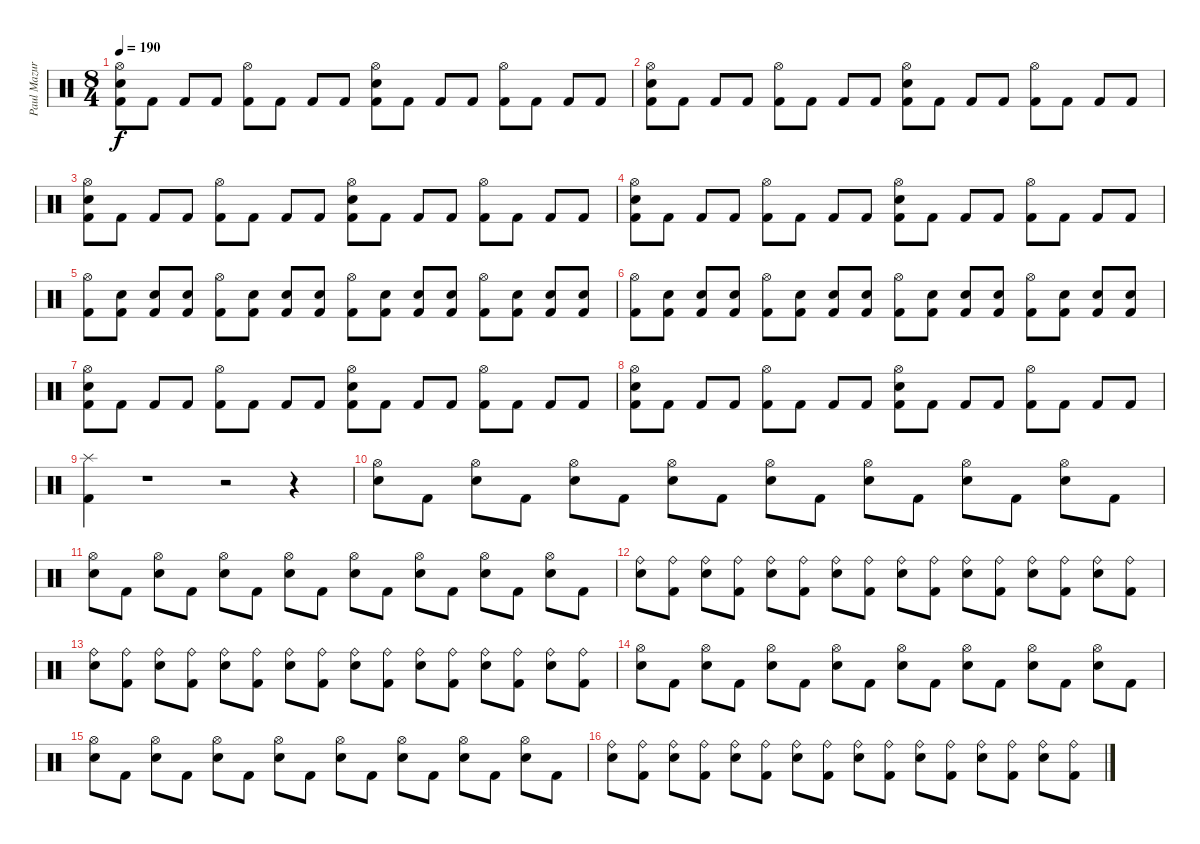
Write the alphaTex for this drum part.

\track ("Paul Mazurkiewicz" "Paul Mazur") {instrument percussion}
\staff {score}
\articulation defaults
\ts (8 4)
\tempo 190
\clef neutral
\ks c
("Hi-Hat (open)" "Snare (hit) 2" "Kick (hit) 2").8{dy f} "Kick (hit) 2".8 "Kick (hit) 2".8 "Kick (hit) 2".8 ("Hi-Hat (open)" "Kick (hit) 2").8 "Kick (hit) 2".8 "Kick (hit) 2".8 "Kick (hit) 2".8 ("Hi-Hat (open)" "Snare (hit) 2" "Kick (hit) 2").8 "Kick (hit) 2".8 "Kick (hit) 2".8 "Kick (hit) 2".8 ("Hi-Hat (open)" "Kick (hit) 2").8 "Kick (hit) 2".8 "Kick (hit) 2".8 "Kick (hit) 2".8 |
("Hi-Hat (open)" "Snare (hit) 2" "Kick (hit) 2").8 "Kick (hit) 2".8 "Kick (hit) 2".8 "Kick (hit) 2".8 ("Hi-Hat (open)" "Kick (hit) 2").8 "Kick (hit) 2".8 "Kick (hit) 2".8 "Kick (hit) 2".8 ("Hi-Hat (open)" "Snare (hit) 2" "Kick (hit) 2").8 "Kick (hit) 2".8 "Kick (hit) 2".8 "Kick (hit) 2".8 ("Hi-Hat (open)" "Kick (hit) 2").8 "Kick (hit) 2".8 "Kick (hit) 2".8 "Kick (hit) 2".8 |
("Hi-Hat (open)" "Snare (hit) 2" "Kick (hit) 2").8 "Kick (hit) 2".8 "Kick (hit) 2".8 "Kick (hit) 2".8 ("Hi-Hat (open)" "Kick (hit) 2").8 "Kick (hit) 2".8 "Kick (hit) 2".8 "Kick (hit) 2".8 ("Hi-Hat (open)" "Snare (hit) 2" "Kick (hit) 2").8 "Kick (hit) 2".8 "Kick (hit) 2".8 "Kick (hit) 2".8 ("Hi-Hat (open)" "Kick (hit) 2").8 "Kick (hit) 2".8 "Kick (hit) 2".8 "Kick (hit) 2".8 |
("Hi-Hat (open)" "Snare (hit) 2" "Kick (hit) 2").8 "Kick (hit) 2".8 "Kick (hit) 2".8 "Kick (hit) 2".8 ("Hi-Hat (open)" "Kick (hit) 2").8 "Kick (hit) 2".8 "Kick (hit) 2".8 "Kick (hit) 2".8 ("Hi-Hat (open)" "Snare (hit) 2" "Kick (hit) 2").8 "Kick (hit) 2".8 "Kick (hit) 2".8 "Kick (hit) 2".8 ("Hi-Hat (open)" "Kick (hit) 2").8 "Kick (hit) 2".8 "Kick (hit) 2".8 "Kick (hit) 2".8 |
("Hi-Hat (open)" "Kick (hit) 2").8 ("Snare (hit) 2" "Kick (hit) 2").8 ("Snare (hit) 2" "Kick (hit) 2").8 ("Snare (hit) 2" "Kick (hit) 2").8 ("Hi-Hat (open)" "Kick (hit) 2").8 ("Snare (hit) 2" "Kick (hit) 2").8 ("Snare (hit) 2" "Kick (hit) 2").8 ("Snare (hit) 2" "Kick (hit) 2").8 ("Hi-Hat (open)" "Kick (hit) 2").8 ("Snare (hit) 2" "Kick (hit) 2").8 ("Snare (hit) 2" "Kick (hit) 2").8 ("Snare (hit) 2" "Kick (hit) 2").8 ("Hi-Hat (open)" "Kick (hit) 2").8 ("Snare (hit) 2" "Kick (hit) 2").8 ("Snare (hit) 2" "Kick (hit) 2").8 ("Snare (hit) 2" "Kick (hit) 2").8 |
("Hi-Hat (open)" "Kick (hit) 2").8 ("Snare (hit) 2" "Kick (hit) 2").8 ("Snare (hit) 2" "Kick (hit) 2").8 ("Snare (hit) 2" "Kick (hit) 2").8 ("Hi-Hat (open)" "Kick (hit) 2").8 ("Snare (hit) 2" "Kick (hit) 2").8 ("Snare (hit) 2" "Kick (hit) 2").8 ("Snare (hit) 2" "Kick (hit) 2").8 ("Hi-Hat (open)" "Kick (hit) 2").8 ("Snare (hit) 2" "Kick (hit) 2").8 ("Snare (hit) 2" "Kick (hit) 2").8 ("Snare (hit) 2" "Kick (hit) 2").8 ("Hi-Hat (open)" "Kick (hit) 2").8 ("Snare (hit) 2" "Kick (hit) 2").8 ("Snare (hit) 2" "Kick (hit) 2").8 ("Snare (hit) 2" "Kick (hit) 2").8 |
("Hi-Hat (open)" "Snare (hit) 2" "Kick (hit) 2").8 "Kick (hit) 2".8 "Kick (hit) 2".8 "Kick (hit) 2".8 ("Hi-Hat (open)" "Kick (hit) 2").8 "Kick (hit) 2".8 "Kick (hit) 2".8 "Kick (hit) 2".8 ("Hi-Hat (open)" "Snare (hit) 2" "Kick (hit) 2").8 "Kick (hit) 2".8 "Kick (hit) 2".8 "Kick (hit) 2".8 ("Hi-Hat (open)" "Kick (hit) 2").8 "Kick (hit) 2".8 "Kick (hit) 2".8 "Kick (hit) 2".8 |
("Hi-Hat (open)" "Snare (hit) 2" "Kick (hit) 2").8 "Kick (hit) 2".8 "Kick (hit) 2".8 "Kick (hit) 2".8 ("Hi-Hat (open)" "Kick (hit) 2").8 "Kick (hit) 2".8 "Kick (hit) 2".8 "Kick (hit) 2".8 ("Hi-Hat (open)" "Snare (hit) 2" "Kick (hit) 2").8 "Kick (hit) 2".8 "Kick (hit) 2".8 "Kick (hit) 2".8 ("Hi-Hat (open)" "Kick (hit) 2").8 "Kick (hit) 2".8 "Kick (hit) 2".8 "Kick (hit) 2".8 |
("Splash (hit)" "Kick (hit) 2").4 r.1 r.2 r.4 |
("Hi-Hat (open)" "Snare (hit) 2").8 "Kick (hit) 2".8 ("Hi-Hat (open)" "Snare (hit) 2").8 "Kick (hit) 2".8 ("Hi-Hat (open)" "Snare (hit) 2").8 "Kick (hit) 2".8 ("Hi-Hat (open)" "Snare (hit) 2").8 "Kick (hit) 2".8 ("Hi-Hat (open)" "Snare (hit) 2").8 "Kick (hit) 2".8 ("Hi-Hat (open)" "Snare (hit) 2").8 "Kick (hit) 2".8 ("Hi-Hat (open)" "Snare (hit) 2").8 "Kick (hit) 2".8 ("Hi-Hat (open)" "Snare (hit) 2").8 "Kick (hit) 2".8 |
("Hi-Hat (open)" "Snare (hit) 2").8 "Kick (hit) 2".8 ("Hi-Hat (open)" "Snare (hit) 2").8 "Kick (hit) 2".8 ("Hi-Hat (open)" "Snare (hit) 2").8 "Kick (hit) 2".8 ("Hi-Hat (open)" "Snare (hit) 2").8 "Kick (hit) 2".8 ("Hi-Hat (open)" "Snare (hit) 2").8 "Kick (hit) 2".8 ("Hi-Hat (open)" "Snare (hit) 2").8 "Kick (hit) 2".8 ("Hi-Hat (open)" "Snare (hit) 2").8 "Kick (hit) 2".8 ("Hi-Hat (open)" "Snare (hit) 2").8 "Kick (hit) 2".8 |
("Ride (bell)" "Snare (hit) 2").8 ("Ride (bell)" "Kick (hit) 2").8 ("Ride (bell)" "Snare (hit) 2").8 ("Ride (bell)" "Kick (hit) 2").8 ("Ride (bell)" "Snare (hit) 2").8 ("Ride (bell)" "Kick (hit) 2").8 ("Ride (bell)" "Snare (hit) 2").8 ("Ride (bell)" "Kick (hit) 2").8 ("Ride (bell)" "Snare (hit) 2").8 ("Ride (bell)" "Kick (hit) 2").8 ("Ride (bell)" "Snare (hit) 2").8 ("Ride (bell)" "Kick (hit) 2").8 ("Ride (bell)" "Snare (hit) 2").8 ("Ride (bell)" "Kick (hit) 2").8 ("Ride (bell)" "Snare (hit) 2").8 ("Ride (bell)" "Kick (hit) 2").8 |
("Ride (bell)" "Snare (hit) 2").8 ("Ride (bell)" "Kick (hit) 2").8 ("Ride (bell)" "Snare (hit) 2").8 ("Ride (bell)" "Kick (hit) 2").8 ("Ride (bell)" "Snare (hit) 2").8 ("Ride (bell)" "Kick (hit) 2").8 ("Ride (bell)" "Snare (hit) 2").8 ("Ride (bell)" "Kick (hit) 2").8 ("Ride (bell)" "Snare (hit) 2").8 ("Ride (bell)" "Kick (hit) 2").8 ("Ride (bell)" "Snare (hit) 2").8 ("Ride (bell)" "Kick (hit) 2").8 ("Ride (bell)" "Snare (hit) 2").8 ("Ride (bell)" "Kick (hit) 2").8 ("Ride (bell)" "Snare (hit) 2").8 ("Ride (bell)" "Kick (hit) 2").8 |
("Hi-Hat (open)" "Snare (hit) 2").8 "Kick (hit) 2".8 ("Hi-Hat (open)" "Snare (hit) 2").8 "Kick (hit) 2".8 ("Hi-Hat (open)" "Snare (hit) 2").8 "Kick (hit) 2".8 ("Hi-Hat (open)" "Snare (hit) 2").8 "Kick (hit) 2".8 ("Hi-Hat (open)" "Snare (hit) 2").8 "Kick (hit) 2".8 ("Hi-Hat (open)" "Snare (hit) 2").8 "Kick (hit) 2".8 ("Hi-Hat (open)" "Snare (hit) 2").8 "Kick (hit) 2".8 ("Hi-Hat (open)" "Snare (hit) 2").8 "Kick (hit) 2".8 |
("Hi-Hat (open)" "Snare (hit) 2").8 "Kick (hit) 2".8 ("Hi-Hat (open)" "Snare (hit) 2").8 "Kick (hit) 2".8 ("Hi-Hat (open)" "Snare (hit) 2").8 "Kick (hit) 2".8 ("Hi-Hat (open)" "Snare (hit) 2").8 "Kick (hit) 2".8 ("Hi-Hat (open)" "Snare (hit) 2").8 "Kick (hit) 2".8 ("Hi-Hat (open)" "Snare (hit) 2").8 "Kick (hit) 2".8 ("Hi-Hat (open)" "Snare (hit) 2").8 "Kick (hit) 2".8 ("Hi-Hat (open)" "Snare (hit) 2").8 "Kick (hit) 2".8 |
("Ride (bell)" "Snare (hit) 2").8 ("Ride (bell)" "Kick (hit) 2").8 ("Ride (bell)" "Snare (hit) 2").8 ("Ride (bell)" "Kick (hit) 2").8 ("Ride (bell)" "Snare (hit) 2").8 ("Ride (bell)" "Kick (hit) 2").8 ("Ride (bell)" "Snare (hit) 2").8 ("Ride (bell)" "Kick (hit) 2").8 ("Ride (bell)" "Snare (hit) 2").8 ("Ride (bell)" "Kick (hit) 2").8 ("Ride (bell)" "Snare (hit) 2").8 ("Ride (bell)" "Kick (hit) 2").8 ("Ride (bell)" "Snare (hit) 2").8 ("Ride (bell)" "Kick (hit) 2").8 ("Ride (bell)" "Snare (hit) 2").8 ("Ride (bell)" "Kick (hit) 2").8
